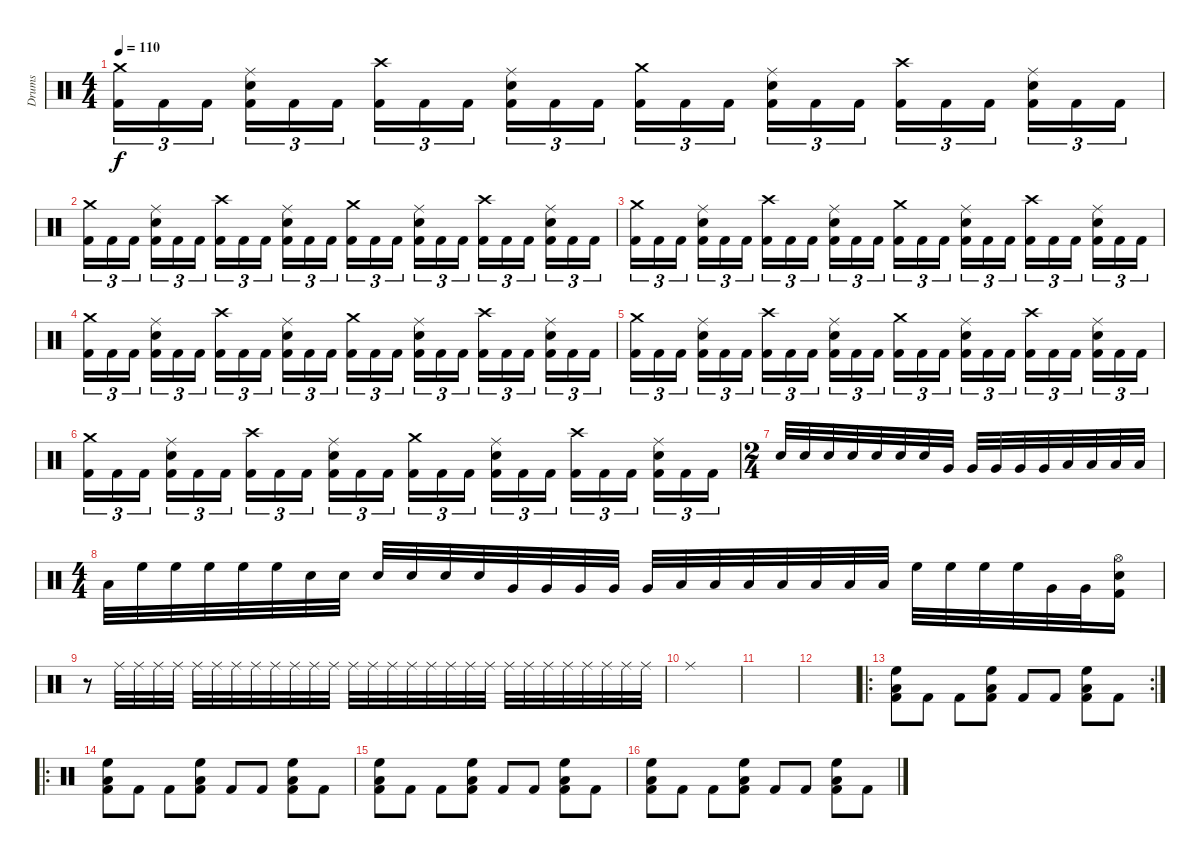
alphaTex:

\track ("Drums" "Drums") {instrument percussion}
\staff {score}
\articulation defaults
\ts (4 4)
\tempo 110
\clef neutral
\ks c
("Kick (hit) 2" "Crash medium (hit)").16{tu (3 2) dy f} "Kick (hit) 2".16{tu (3 2)} "Kick (hit) 2".16{tu (3 2) beam splitsecondary} ("Kick (hit) 2" "Snare (hit) 2" "Ride (middle)").16{tu (3 2)} "Kick (hit) 2".16{tu (3 2)} "Kick (hit) 2".16{tu (3 2)} ("Kick (hit) 2" "Crash high (hit)").16{tu (3 2)} "Kick (hit) 2".16{tu (3 2)} "Kick (hit) 2".16{tu (3 2) beam splitsecondary} ("Kick (hit) 2" "Snare (hit) 2" "Ride (middle)").16{tu (3 2)} "Kick (hit) 2".16{tu (3 2)} "Kick (hit) 2".16{tu (3 2)} ("Kick (hit) 2" "Crash medium (hit)").16{tu (3 2)} "Kick (hit) 2".16{tu (3 2)} "Kick (hit) 2".16{tu (3 2) beam splitsecondary} ("Kick (hit) 2" "Snare (hit) 2" "Ride (middle)").16{tu (3 2)} "Kick (hit) 2".16{tu (3 2)} "Kick (hit) 2".16{tu (3 2)} ("Kick (hit) 2" "Crash high (hit)").16{tu (3 2)} "Kick (hit) 2".16{tu (3 2)} "Kick (hit) 2".16{tu (3 2) beam splitsecondary} ("Kick (hit) 2" "Snare (hit) 2" "Ride (middle)").16{tu (3 2)} "Kick (hit) 2".16{tu (3 2)} "Kick (hit) 2".16{tu (3 2)} |
("Kick (hit) 2" "Crash medium (hit)").16{tu (3 2)} "Kick (hit) 2".16{tu (3 2)} "Kick (hit) 2".16{tu (3 2) beam splitsecondary} ("Kick (hit) 2" "Snare (hit) 2" "Ride (middle)").16{tu (3 2)} "Kick (hit) 2".16{tu (3 2)} "Kick (hit) 2".16{tu (3 2)} ("Kick (hit) 2" "Crash high (hit)").16{tu (3 2)} "Kick (hit) 2".16{tu (3 2)} "Kick (hit) 2".16{tu (3 2) beam splitsecondary} ("Kick (hit) 2" "Snare (hit) 2" "Ride (middle)").16{tu (3 2)} "Kick (hit) 2".16{tu (3 2)} "Kick (hit) 2".16{tu (3 2)} ("Kick (hit) 2" "Crash medium (hit)").16{tu (3 2)} "Kick (hit) 2".16{tu (3 2)} "Kick (hit) 2".16{tu (3 2) beam splitsecondary} ("Kick (hit) 2" "Snare (hit) 2" "Ride (middle)").16{tu (3 2)} "Kick (hit) 2".16{tu (3 2)} "Kick (hit) 2".16{tu (3 2)} ("Kick (hit) 2" "Crash high (hit)").16{tu (3 2)} "Kick (hit) 2".16{tu (3 2)} "Kick (hit) 2".16{tu (3 2) beam splitsecondary} ("Kick (hit) 2" "Snare (hit) 2" "Ride (middle)").16{tu (3 2)} "Kick (hit) 2".16{tu (3 2)} "Kick (hit) 2".16{tu (3 2)} |
("Kick (hit) 2" "Crash medium (hit)").16{tu (3 2)} "Kick (hit) 2".16{tu (3 2)} "Kick (hit) 2".16{tu (3 2) beam splitsecondary} ("Kick (hit) 2" "Snare (hit) 2" "Ride (middle)").16{tu (3 2)} "Kick (hit) 2".16{tu (3 2)} "Kick (hit) 2".16{tu (3 2)} ("Kick (hit) 2" "Crash high (hit)").16{tu (3 2)} "Kick (hit) 2".16{tu (3 2)} "Kick (hit) 2".16{tu (3 2) beam splitsecondary} ("Kick (hit) 2" "Snare (hit) 2" "Ride (middle)").16{tu (3 2)} "Kick (hit) 2".16{tu (3 2)} "Kick (hit) 2".16{tu (3 2)} ("Kick (hit) 2" "Crash medium (hit)").16{tu (3 2)} "Kick (hit) 2".16{tu (3 2)} "Kick (hit) 2".16{tu (3 2) beam splitsecondary} ("Kick (hit) 2" "Snare (hit) 2" "Ride (middle)").16{tu (3 2)} "Kick (hit) 2".16{tu (3 2)} "Kick (hit) 2".16{tu (3 2)} ("Kick (hit) 2" "Crash high (hit)").16{tu (3 2)} "Kick (hit) 2".16{tu (3 2)} "Kick (hit) 2".16{tu (3 2) beam splitsecondary} ("Kick (hit) 2" "Snare (hit) 2" "Ride (middle)").16{tu (3 2)} "Kick (hit) 2".16{tu (3 2)} "Kick (hit) 2".16{tu (3 2)} |
("Kick (hit) 2" "Crash medium (hit)").16{tu (3 2)} "Kick (hit) 2".16{tu (3 2)} "Kick (hit) 2".16{tu (3 2) beam splitsecondary} ("Kick (hit) 2" "Snare (hit) 2" "Ride (middle)").16{tu (3 2)} "Kick (hit) 2".16{tu (3 2)} "Kick (hit) 2".16{tu (3 2)} ("Kick (hit) 2" "Crash high (hit)").16{tu (3 2)} "Kick (hit) 2".16{tu (3 2)} "Kick (hit) 2".16{tu (3 2) beam splitsecondary} ("Kick (hit) 2" "Snare (hit) 2" "Ride (middle)").16{tu (3 2)} "Kick (hit) 2".16{tu (3 2)} "Kick (hit) 2".16{tu (3 2)} ("Kick (hit) 2" "Crash medium (hit)").16{tu (3 2)} "Kick (hit) 2".16{tu (3 2)} "Kick (hit) 2".16{tu (3 2) beam splitsecondary} ("Kick (hit) 2" "Snare (hit) 2" "Ride (middle)").16{tu (3 2)} "Kick (hit) 2".16{tu (3 2)} "Kick (hit) 2".16{tu (3 2)} ("Kick (hit) 2" "Crash high (hit)").16{tu (3 2)} "Kick (hit) 2".16{tu (3 2)} "Kick (hit) 2".16{tu (3 2) beam splitsecondary} ("Kick (hit) 2" "Snare (hit) 2" "Ride (middle)").16{tu (3 2)} "Kick (hit) 2".16{tu (3 2)} "Kick (hit) 2".16{tu (3 2)} |
("Kick (hit) 2" "Crash medium (hit)").16{tu (3 2)} "Kick (hit) 2".16{tu (3 2)} "Kick (hit) 2".16{tu (3 2) beam splitsecondary} ("Kick (hit) 2" "Snare (hit) 2" "Ride (middle)").16{tu (3 2)} "Kick (hit) 2".16{tu (3 2)} "Kick (hit) 2".16{tu (3 2)} ("Kick (hit) 2" "Crash high (hit)").16{tu (3 2)} "Kick (hit) 2".16{tu (3 2)} "Kick (hit) 2".16{tu (3 2) beam splitsecondary} ("Kick (hit) 2" "Snare (hit) 2" "Ride (middle)").16{tu (3 2)} "Kick (hit) 2".16{tu (3 2)} "Kick (hit) 2".16{tu (3 2)} ("Kick (hit) 2" "Crash medium (hit)").16{tu (3 2)} "Kick (hit) 2".16{tu (3 2)} "Kick (hit) 2".16{tu (3 2) beam splitsecondary} ("Kick (hit) 2" "Snare (hit) 2" "Ride (middle)").16{tu (3 2)} "Kick (hit) 2".16{tu (3 2)} "Kick (hit) 2".16{tu (3 2)} ("Kick (hit) 2" "Crash high (hit)").16{tu (3 2)} "Kick (hit) 2".16{tu (3 2)} "Kick (hit) 2".16{tu (3 2) beam splitsecondary} ("Kick (hit) 2" "Snare (hit) 2" "Ride (middle)").16{tu (3 2)} "Kick (hit) 2".16{tu (3 2)} "Kick (hit) 2".16{tu (3 2)} |
("Kick (hit) 2" "Crash medium (hit)").16{tu (3 2)} "Kick (hit) 2".16{tu (3 2)} "Kick (hit) 2".16{tu (3 2) beam splitsecondary} ("Kick (hit) 2" "Snare (hit) 2" "Ride (middle)").16{tu (3 2)} "Kick (hit) 2".16{tu (3 2)} "Kick (hit) 2".16{tu (3 2)} ("Kick (hit) 2" "Crash high (hit)").16{tu (3 2)} "Kick (hit) 2".16{tu (3 2)} "Kick (hit) 2".16{tu (3 2) beam splitsecondary} ("Kick (hit) 2" "Snare (hit) 2" "Ride (middle)").16{tu (3 2)} "Kick (hit) 2".16{tu (3 2)} "Kick (hit) 2".16{tu (3 2)} ("Kick (hit) 2" "Crash medium (hit)").16{tu (3 2)} "Kick (hit) 2".16{tu (3 2)} "Kick (hit) 2".16{tu (3 2) beam splitsecondary} ("Kick (hit) 2" "Snare (hit) 2" "Ride (middle)").16{tu (3 2)} "Kick (hit) 2".16{tu (3 2)} "Kick (hit) 2".16{tu (3 2)} ("Kick (hit) 2" "Crash high (hit)").16{tu (3 2)} "Kick (hit) 2".16{tu (3 2)} "Kick (hit) 2".16{tu (3 2) beam splitsecondary} ("Kick (hit) 2" "Snare (hit) 2" "Ride (middle)").16{tu (3 2)} "Kick (hit) 2".16{tu (3 2)} "Kick (hit) 2".16{tu (3 2)} |
\ts (2 4)
"Snare (hit) 2".32 "Snare (hit) 2".32 "Snare (hit) 2".32 "Snare (hit) 2".32 "Snare (hit) 2".32 "Snare (hit) 2".32 "Snare (hit) 2".32 "Very Low Tom (hit)".32 "Very Low Tom (hit)".32 "Very Low Tom (hit)".32 "Very Low Tom (hit)".32 "Very Low Tom (hit)".32 "Low Floor Tom (hit)".32 "Low Floor Tom (hit)".32 "Low Floor Tom (hit)".32 "Low Floor Tom (hit)".32 |
\ts (4 4)
"Low Floor Tom (hit)".32 "High Floor Tom (hit)".32 "High Floor Tom (hit)".32 "High Floor Tom (hit)".32 "High Floor Tom (hit)".32 "High Floor Tom (hit)".32 "Snare (hit) 2".32 "Snare (hit) 2".32 "Snare (hit) 2".32 "Snare (hit) 2".32 "Snare (hit) 2".32 "Snare (hit) 2".32 "Very Low Tom (hit)".32 "Very Low Tom (hit)".32 "Very Low Tom (hit)".32 "Very Low Tom (hit)".32 "Very Low Tom (hit)".32 "Low Floor Tom (hit)".32 "Low Floor Tom (hit)".32 "Low Floor Tom (hit)".32 "Low Floor Tom (hit)".32 "Low Floor Tom (hit)".32 "Low Floor Tom (hit)".32 "Low Floor Tom (hit)".32 "High Floor Tom (hit)".32 "High Floor Tom (hit)".32 "High Floor Tom (hit)".32 "High Floor Tom (hit)".32 "Very Low Tom (hit)".32 "Very Low Tom (hit)".32 ("Snare (hit) 2" "Kick (hit) 2" "Hi-Hat (open)").16 |
r.8 "Ride (middle)".32 "Ride (middle)".32 "Ride (middle)".32 "Ride (middle)".32 "Ride (middle)".32 "Ride (middle)".32 "Ride (middle)".32 "Ride (middle)".32 "Ride (middle)".32 "Ride (middle)".32 "Ride (middle)".32 "Ride (middle)".32 "Ride (middle)".32 "Ride (middle)".32 "Ride (middle)".32 "Ride (middle)".32 "Ride (middle)".32 "Ride (middle)".32 "Ride (middle)".32 "Ride (middle)".32 "Ride (middle)".32 "Ride (middle)".32 "Ride (middle)".32 "Ride (middle)".32 "Ride (middle)".32 "Ride (middle)".32 "Ride (middle)".32 "Ride (middle)".32 |
"Ride (middle)".1 |
|
|
\ro
\rc 2
("Kick (hit) 2" "Low Floor Tom (hit)" "High Floor Tom (hit)").8 "Kick (hit) 2".8 "Kick (hit) 2".8 ("Kick (hit) 2" "Low Floor Tom (hit)" "High Floor Tom (hit)").8 "Kick (hit) 2".8 "Kick (hit) 2".8 ("Kick (hit) 2" "Low Floor Tom (hit)" "High Floor Tom (hit)").8 "Kick (hit) 2".8 |
\ro
("Kick (hit) 2" "Low Floor Tom (hit)" "High Floor Tom (hit)").8 "Kick (hit) 2".8 "Kick (hit) 2".8 ("Kick (hit) 2" "Low Floor Tom (hit)" "High Floor Tom (hit)").8 "Kick (hit) 2".8 "Kick (hit) 2".8 ("Kick (hit) 2" "Low Floor Tom (hit)" "High Floor Tom (hit)").8 "Kick (hit) 2".8 |
("Kick (hit) 2" "Low Floor Tom (hit)" "High Floor Tom (hit)").8 "Kick (hit) 2".8 "Kick (hit) 2".8 ("Kick (hit) 2" "Low Floor Tom (hit)" "High Floor Tom (hit)").8 "Kick (hit) 2".8 "Kick (hit) 2".8 ("Kick (hit) 2" "Low Floor Tom (hit)" "High Floor Tom (hit)").8 "Kick (hit) 2".8 |
("Kick (hit) 2" "Low Floor Tom (hit)" "High Floor Tom (hit)").8 "Kick (hit) 2".8 "Kick (hit) 2".8 ("Kick (hit) 2" "Low Floor Tom (hit)" "High Floor Tom (hit)").8 "Kick (hit) 2".8 "Kick (hit) 2".8 ("Kick (hit) 2" "Low Floor Tom (hit)" "High Floor Tom (hit)").8 "Kick (hit) 2".8
